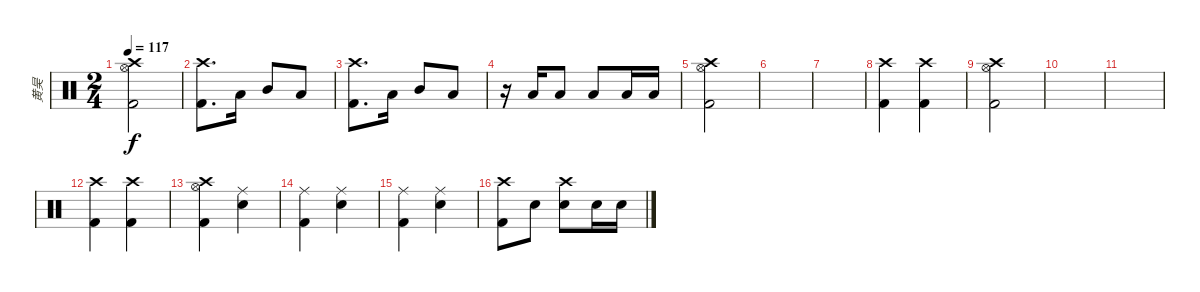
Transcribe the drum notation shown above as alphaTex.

\track ("黄昊" "黄昊") {instrument percussion}
\staff {score}
\articulation defaults
\ts (2 4)
\tempo 117
\clef neutral
\ks c
("Hi-Hat (open)" "Crash high (hit)" "Kick (hit) 2").2{dy f} |
("Crash high (hit)" "Kick (hit) 2").8{d} "Low Tom (hit)".16 "Mid Tom (hit)".8 "Low Tom (hit)".8 |
("Crash high (hit)" "Kick (hit) 2").8{d} "Low Tom (hit)".16 "Mid Tom (hit)".8 "Low Tom (hit)".8 |
r.16 "Low Tom (hit)".16 "Low Tom (hit)".8 "Low Floor Tom (hit)".8 "Low Floor Tom (hit)".16 "Low Floor Tom (hit)".16 |
("Crash high (hit)" "Hi-Hat (open)" "Kick (hit) 2").2 |
|
|
("Crash high (hit)" "Kick (hit) 2").4 ("Crash high (hit)" "Kick (hit) 2").4 |
("Crash high (hit)" "Hi-Hat (open)" "Kick (hit) 2").2 |
|
|
("Crash high (hit)" "Kick (hit) 2").4 ("Crash high (hit)" "Kick (hit) 2").4 |
("Crash high (hit)" "Hi-Hat (open)" "Kick (hit) 2").4 ("Ride (middle)" "Snare (hit) 2").4 |
("Ride (middle)" "Kick (hit) 2").4 ("Ride (middle)" "Snare (hit) 2").4 |
("Ride (middle)" "Kick (hit) 2").4 ("Ride (middle)" "Snare (hit) 2").4 |
("Crash high (hit)" "Kick (hit) 2").8 "Snare (hit) 2".8 ("Crash high (hit)" "Snare (hit) 2").8 "Snare (hit) 2".16 "Snare (hit) 2".16
